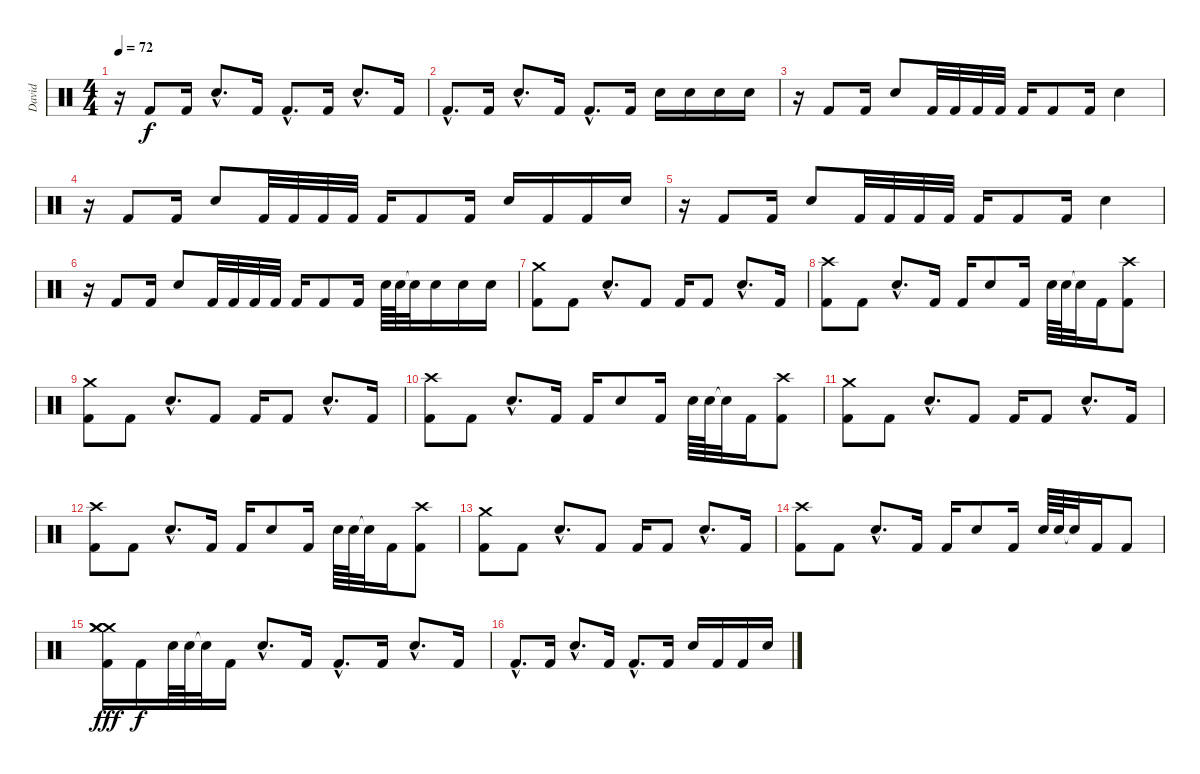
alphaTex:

\track ("David" "David") {instrument percussion}
\staff {score}
\articulation defaults
\ts (4 4)
\tempo 72
\clef neutral
\ks c
r.16{dy f} "Kick (hit) 2".8 "Kick (hit) 2".16 "Snare (hit) 2"{hac}.8{d} "Kick (hit) 2".16 "Kick (hit) 2"{hac}.8{d} "Kick (hit) 2".16 "Snare (hit) 2"{hac}.8{d} "Kick (hit) 2".16 |
"Kick (hit) 2"{hac}.8{d} "Kick (hit) 2".16 "Snare (hit) 2"{hac}.8{d} "Kick (hit) 2".16 "Kick (hit) 2"{hac}.8{d} "Kick (hit) 2".16 "Snare (hit) 2".16 "Snare (hit) 2".16 "Snare (hit) 2".16 "Snare (hit) 2".16 |
r.16 "Kick (hit) 2".8 "Kick (hit) 2".16 "Snare (hit) 2".8 "Kick (hit) 2".32 "Kick (hit) 2".32 "Kick (hit) 2".32 "Kick (hit) 2".32 "Kick (hit) 2".16 "Kick (hit) 2".8 "Kick (hit) 2".16 "Snare (hit) 2".4 |
r.16 "Kick (hit) 2".8 "Kick (hit) 2".16 "Snare (hit) 2".8 "Kick (hit) 2".32 "Kick (hit) 2".32 "Kick (hit) 2".32 "Kick (hit) 2".32 "Kick (hit) 2".16 "Kick (hit) 2".8 "Kick (hit) 2".16 "Snare (hit) 2".16 "Kick (hit) 2".16 "Kick (hit) 2".16 "Snare (hit) 2".16 |
r.16 "Kick (hit) 2".8 "Kick (hit) 2".16 "Snare (hit) 2".8 "Kick (hit) 2".32 "Kick (hit) 2".32 "Kick (hit) 2".32 "Kick (hit) 2".32 "Kick (hit) 2".16 "Kick (hit) 2".8 "Kick (hit) 2".16 "Snare (hit) 2".4 |
r.16 "Kick (hit) 2".8 "Kick (hit) 2".16 "Snare (hit) 2".8 "Kick (hit) 2".32 "Kick (hit) 2".32 "Kick (hit) 2".32 "Kick (hit) 2".32 "Kick (hit) 2".16 "Kick (hit) 2".8 "Kick (hit) 2".16 "Snare (hit) 2".64 "Snare (hit) 2".64 "Snare (hit)"{t}.32 "Snare (hit) 2".16 "Snare (hit) 2".16 "Snare (hit) 2".16 |
("Crash medium (hit)" "Kick (hit) 2").8 "Kick (hit) 2".8 "Snare (hit) 2"{hac}.8{d} "Kick (hit) 2".8 "Kick (hit) 2".16 "Kick (hit) 2".8 "Snare (hit) 2"{hac}.8{d} "Kick (hit) 2".16 |
("Crash high (hit)" "Kick (hit) 2").8 "Kick (hit) 2".8 "Snare (hit) 2"{hac}.8{d} "Kick (hit) 2".16 "Kick (hit) 2".16 "Snare (hit) 2".8 "Kick (hit) 2".16 "Snare (hit) 2".64 "Snare (hit) 2".64 "Snare (hit)"{t}.32 "Kick (hit) 2".16 ("Crash high (hit)" "Kick (hit) 2").8 |
("Crash medium (hit)" "Kick (hit) 2").8 "Kick (hit) 2".8 "Snare (hit) 2"{hac}.8{d} "Kick (hit) 2".8 "Kick (hit) 2".16 "Kick (hit) 2".8 "Snare (hit) 2"{hac}.8{d} "Kick (hit) 2".16 |
("Crash high (hit)" "Kick (hit) 2").8 "Kick (hit) 2".8 "Snare (hit) 2"{hac}.8{d} "Kick (hit) 2".16 "Kick (hit) 2".16 "Snare (hit) 2".8 "Kick (hit) 2".16 "Snare (hit) 2".64 "Snare (hit) 2".64 "Snare (hit)"{t}.32 "Kick (hit) 2".16 ("Crash high (hit)" "Kick (hit) 2").8 |
("Crash medium (hit)" "Kick (hit) 2").8 "Kick (hit) 2".8 "Snare (hit) 2"{hac}.8{d} "Kick (hit) 2".8 "Kick (hit) 2".16 "Kick (hit) 2".8 "Snare (hit) 2"{hac}.8{d} "Kick (hit) 2".16 |
("Crash high (hit)" "Kick (hit) 2").8 "Kick (hit) 2".8 "Snare (hit) 2"{hac}.8{d} "Kick (hit) 2".16 "Kick (hit) 2".16 "Snare (hit) 2".8 "Kick (hit) 2".16 "Snare (hit) 2".64 "Snare (hit) 2".64 "Snare (hit)"{t}.32 "Kick (hit) 2".16 ("Crash high (hit)" "Kick (hit) 2").8 |
("Crash medium (hit)" "Kick (hit) 2").8 "Kick (hit) 2".8 "Snare (hit) 2"{hac}.8{d} "Kick (hit) 2".8 "Kick (hit) 2".16 "Kick (hit) 2".8 "Snare (hit) 2"{hac}.8{d} "Kick (hit) 2".16 |
("Crash high (hit)" "Kick (hit) 2").8 "Kick (hit) 2".8 "Snare (hit) 2"{hac}.8{d} "Kick (hit) 2".16 "Kick (hit) 2".16 "Snare (hit) 2".8 "Kick (hit) 2".16 "Snare (hit) 2".64 "Snare (hit) 2".64 "Snare (hit)"{t}.32 "Kick (hit) 2".16 "Kick (hit) 2".8 |
("Crash medium (hit)" "Crash medium (hit)" "Crash medium (hit)" "Kick (hit) 2").16{dy fff} "Kick (hit) 2".16{dy f} "Snare (hit) 2".64 "Snare (hit) 2".64 "Snare (hit)"{t}.32 "Kick (hit) 2".16 "Snare (hit) 2"{hac}.8{d} "Kick (hit) 2".16 "Kick (hit) 2"{hac}.8{d} "Kick (hit) 2".16 "Snare (hit) 2"{hac}.8{d} "Kick (hit) 2".16 |
"Kick (hit) 2"{hac}.8{d} "Kick (hit) 2".16 "Snare (hit) 2"{hac}.8{d} "Kick (hit) 2".16 "Kick (hit) 2"{hac}.8{d} "Kick (hit) 2".16 "Snare (hit) 2".16 "Kick (hit) 2".16 "Kick (hit) 2".16 "Snare (hit) 2".16
